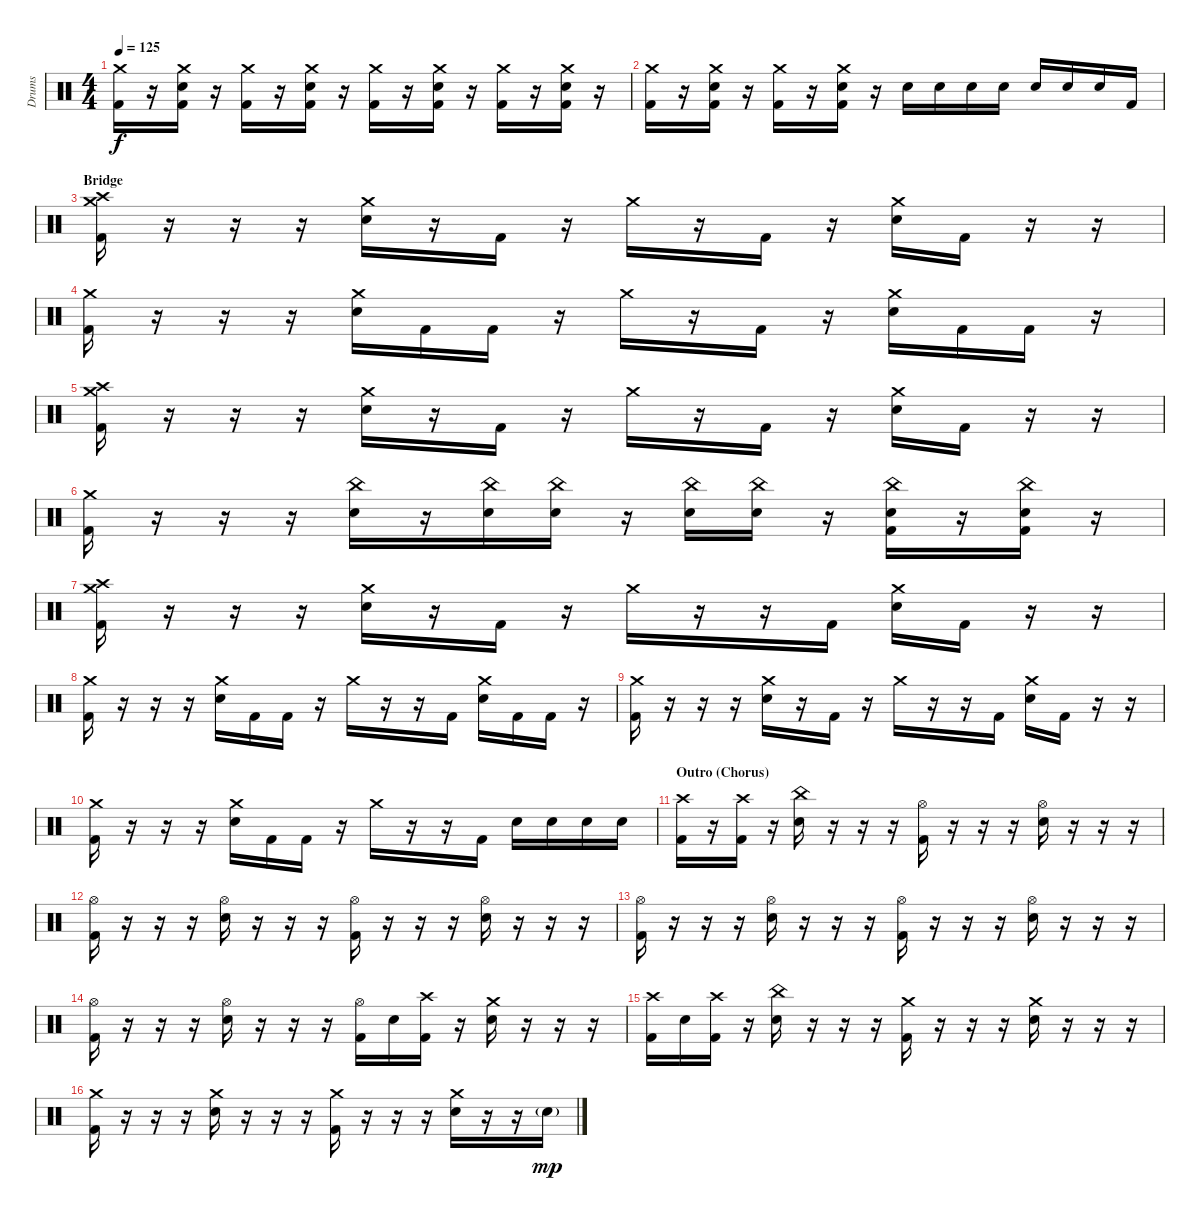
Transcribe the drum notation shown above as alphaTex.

\track ("Drums" "Drums") {instrument percussion}
\staff {score}
\articulation defaults
\ts (4 4)
\tempo 125
\clef neutral
\ks c
("Crash medium (hit)" "Kick (hit) 2").16{dy f} r.16 ("Crash medium (hit)" "Electric Snare (hit)" "Kick (hit) 2").16 r.16 ("Crash medium (hit)" "Kick (hit) 2").16 r.16 ("Crash medium (hit)" "Electric Snare (hit)" "Kick (hit) 2").16 r.16 ("Crash medium (hit)" "Kick (hit) 2").16 r.16 ("Crash medium (hit)" "Electric Snare (hit)" "Kick (hit) 2").16 r.16 ("Crash medium (hit)" "Kick (hit) 2").16 r.16 ("Crash medium (hit)" "Electric Snare (hit)" "Kick (hit) 2").16 r.16 |
("Crash medium (hit)" "Kick (hit) 2").16 r.16 ("Crash medium (hit)" "Electric Snare (hit)" "Kick (hit) 2").16 r.16 ("Crash medium (hit)" "Kick (hit) 2").16 r.16 ("Crash medium (hit)" "Electric Snare (hit)" "Kick (hit) 2").16 r.16 "Electric Snare (hit)".16 "Electric Snare (hit)".16 "Electric Snare (hit)".16 "Electric Snare (hit)".16 "Electric Snare (hit)".16 "Electric Snare (hit)".16 "Electric Snare (hit)".16 "Kick (hit) 2".16 |
\section ("" "Bridge")
("Crash medium (hit)" "Crash high (hit)" "Kick (hit) 2").16 r.16 r.16 r.16 ("Crash medium (hit)" "Electric Snare (hit)").16 r.16 "Kick (hit) 2".16 r.16 "Crash medium (hit)".16 r.16 "Kick (hit) 2".16 r.16 ("Crash medium (hit)" "Electric Snare (hit)").16 "Kick (hit) 2".16 r.16 r.16 |
("Crash medium (hit)" "Kick (hit) 2").16 r.16 r.16 r.16 ("Crash medium (hit)" "Electric Snare (hit)").16 "Kick (hit) 2".16 "Kick (hit) 2".16 r.16 "Crash medium (hit)".16 r.16 "Kick (hit) 2".16 r.16 ("Crash medium (hit)" "Electric Snare (hit)").16 "Kick (hit) 2".16 "Kick (hit) 2".16 r.16 |
("Crash medium (hit)" "Crash high (hit)" "Kick (hit) 2").16 r.16 r.16 r.16 ("Crash medium (hit)" "Electric Snare (hit)").16 r.16 "Kick (hit) 2".16 r.16 "Crash medium (hit)".16 r.16 "Kick (hit) 2".16 r.16 ("Crash medium (hit)" "Electric Snare (hit)").16 "Kick (hit) 2".16 r.16 r.16 |
("Crash medium (hit)" "Kick (hit) 2").16 r.16 r.16 r.16 ("China (hit)" "Electric Snare (hit)").16 r.16 ("China (hit)" "Electric Snare (hit)").16 ("China (hit)" "Electric Snare (hit)").16 r.16 ("China (hit)" "Electric Snare (hit)").16 ("China (hit)" "Electric Snare (hit)").16 r.16 ("China (hit)" "Electric Snare (hit)" "Kick (hit) 2").16 r.16 ("China (hit)" "Electric Snare (hit)" "Kick (hit) 2").16 r.16 |
("Crash medium (hit)" "Crash high (hit)" "Kick (hit) 2").16 r.16 r.16 r.16 ("Crash medium (hit)" "Electric Snare (hit)").16 r.16 "Kick (hit) 2".16 r.16 "Crash medium (hit)".16 r.16 r.16 "Kick (hit) 2".16 ("Crash medium (hit)" "Electric Snare (hit)").16 "Kick (hit) 2".16 r.16 r.16 |
("Crash medium (hit)" "Kick (hit) 2").16 r.16 r.16 r.16 ("Crash medium (hit)" "Electric Snare (hit)").16 "Kick (hit) 2".16 "Kick (hit) 2".16 r.16 "Crash medium (hit)".16 r.16 r.16 "Kick (hit) 2".16 ("Crash medium (hit)" "Electric Snare (hit)").16 "Kick (hit) 2".16 "Kick (hit) 2".16 r.16 |
("Crash medium (hit)" "Kick (hit) 2").16 r.16 r.16 r.16 ("Crash medium (hit)" "Electric Snare (hit)").16 r.16 "Kick (hit) 2".16 r.16 "Crash medium (hit)".16 r.16 r.16 "Kick (hit) 2".16 ("Crash medium (hit)" "Electric Snare (hit)").16 "Kick (hit) 2".16 r.16 r.16 |
("Crash medium (hit)" "Kick (hit) 2").16 r.16 r.16 r.16 ("Crash medium (hit)" "Electric Snare (hit)").16 "Kick (hit) 2".16 "Kick (hit) 2".16 r.16 "Crash medium (hit)".16 r.16 r.16 "Kick (hit) 2".16 "Electric Snare (hit)".16 "Electric Snare (hit)".16 "Electric Snare (hit)".16 "Electric Snare (hit)".16 |
\section ("" "Outro (Chorus)")
("Crash high (hit)" "Kick (hit) 2").16 r.16 ("Crash high (hit)" "Kick (hit) 2").16 r.16 ("China (hit)" "Electric Snare (hit)").16 r.16 r.16 r.16 ("Hi-Hat (open)" "Kick (hit) 2").16 r.16 r.16 r.16 ("Hi-Hat (open)" "Electric Snare (hit)").16 r.16 r.16 r.16 |
("Hi-Hat (open)" "Kick (hit) 2").16 r.16 r.16 r.16 ("Hi-Hat (open)" "Electric Snare (hit)").16 r.16 r.16 r.16 ("Hi-Hat (open)" "Kick (hit) 2").16 r.16 r.16 r.16 ("Hi-Hat (open)" "Electric Snare (hit)").16 r.16 r.16 r.16 |
("Hi-Hat (open)" "Kick (hit) 2").16 r.16 r.16 r.16 ("Hi-Hat (open)" "Electric Snare (hit)").16 r.16 r.16 r.16 ("Hi-Hat (open)" "Kick (hit) 2").16 r.16 r.16 r.16 ("Hi-Hat (open)" "Electric Snare (hit)").16 r.16 r.16 r.16 |
("Hi-Hat (open)" "Kick (hit) 2").16 r.16 r.16 r.16 ("Hi-Hat (open)" "Electric Snare (hit)").16 r.16 r.16 r.16 ("Hi-Hat (open)" "Kick (hit) 2").16 "Electric Snare (hit)".16 ("Crash high (hit)" "Kick (hit) 2").16 r.16 ("Crash medium (hit)" "Electric Snare (hit)").16 r.16 r.16 r.16 |
("Crash high (hit)" "Kick (hit) 2").16 "Electric Snare (hit)".16 ("Crash high (hit)" "Kick (hit) 2").16 r.16 ("China (hit)" "Electric Snare (hit)").16 r.16 r.16 r.16 ("Crash medium (hit)" "Kick (hit) 2").16 r.16 r.16 r.16 ("Crash medium (hit)" "Electric Snare (hit)").16 r.16 r.16 r.16 |
("Crash medium (hit)" "Kick (hit) 2").16 r.16 r.16 r.16 ("Crash medium (hit)" "Electric Snare (hit)").16 r.16 r.16 r.16 ("Crash medium (hit)" "Kick (hit) 2").16 r.16 r.16 r.16 ("Crash medium (hit)" "Electric Snare (hit)").16 r.16 r.16 "Electric Snare (hit)"{g}.16{dy mp}
